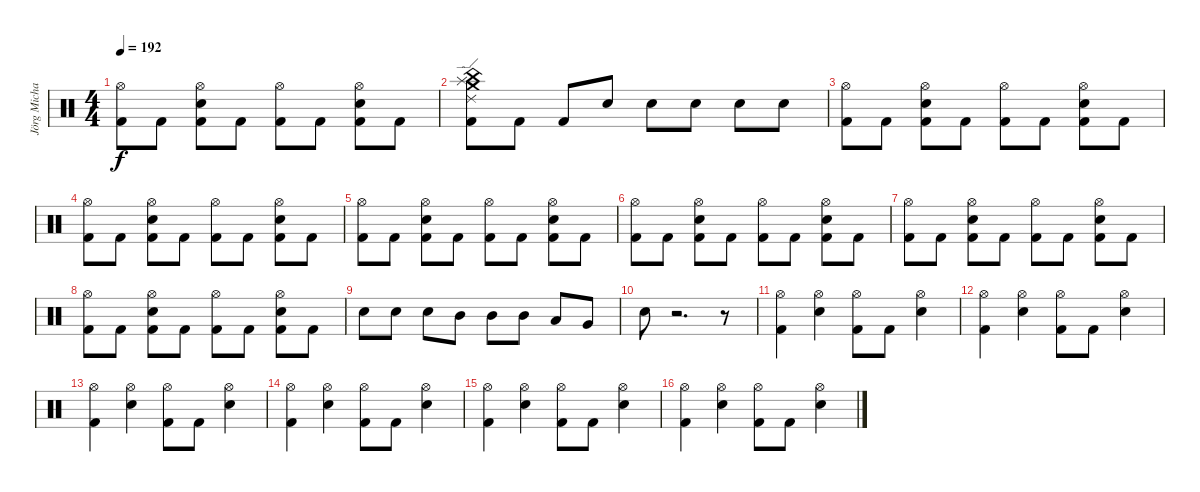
\track ("Jörg Michael" "Jörg Micha") {instrument percussion}
\staff {score}
\articulation defaults
\ts (4 4)
\tempo 192
\clef neutral
\ks c
("Hi-Hat (open)" "Kick (hit) 2").8{dy f} "Kick (hit) 2".8 ("Electric Snare (hit)" "Hi-Hat (open)" "Kick (hit) 2").8 "Kick (hit) 2".8 ("Hi-Hat (open)" "Kick (hit) 2").8 "Kick (hit) 2".8 ("Electric Snare (hit)" "Hi-Hat (open)" "Kick (hit) 2").8 "Kick (hit) 2".8 |
("Ride (edge) 2" "Crash medium (hit)" "Splash (hit)" "China (hit)" "Kick (hit) 2").8 "Kick (hit) 2".8 "Kick (hit) 2".8 "Electric Snare (hit)".8{volume 6} "Electric Snare (hit)".8{volume 7} "Electric Snare (hit)".8{volume 8} "Electric Snare (hit)".8{volume 9} "Electric Snare (hit)".8{volume 10} |
("Hi-Hat (open)" "Kick (hit) 2").8{volume 11} "Kick (hit) 2".8 ("Electric Snare (hit)" "Hi-Hat (open)" "Kick (hit) 2").8 "Kick (hit) 2".8 ("Hi-Hat (open)" "Kick (hit) 2").8 "Kick (hit) 2".8 ("Electric Snare (hit)" "Hi-Hat (open)" "Kick (hit) 2").8 "Kick (hit) 2".8 |
("Hi-Hat (open)" "Kick (hit) 2").8 "Kick (hit) 2".8 ("Electric Snare (hit)" "Hi-Hat (open)" "Kick (hit) 2").8 "Kick (hit) 2".8 ("Hi-Hat (open)" "Kick (hit) 2").8 "Kick (hit) 2".8 ("Electric Snare (hit)" "Hi-Hat (open)" "Kick (hit) 2").8 "Kick (hit) 2".8 |
("Hi-Hat (open)" "Kick (hit) 2").8 "Kick (hit) 2".8 ("Electric Snare (hit)" "Hi-Hat (open)" "Kick (hit) 2").8 "Kick (hit) 2".8 ("Hi-Hat (open)" "Kick (hit) 2").8 "Kick (hit) 2".8 ("Electric Snare (hit)" "Hi-Hat (open)" "Kick (hit) 2").8 "Kick (hit) 2".8 |
("Hi-Hat (open)" "Kick (hit) 2").8 "Kick (hit) 2".8 ("Electric Snare (hit)" "Hi-Hat (open)" "Kick (hit) 2").8 "Kick (hit) 2".8 ("Hi-Hat (open)" "Kick (hit) 2").8 "Kick (hit) 2".8 ("Electric Snare (hit)" "Hi-Hat (open)" "Kick (hit) 2").8 "Kick (hit) 2".8 |
("Hi-Hat (open)" "Kick (hit) 2").8 "Kick (hit) 2".8 ("Electric Snare (hit)" "Hi-Hat (open)" "Kick (hit) 2").8 "Kick (hit) 2".8 ("Hi-Hat (open)" "Kick (hit) 2").8 "Kick (hit) 2".8 ("Electric Snare (hit)" "Hi-Hat (open)" "Kick (hit) 2").8 "Kick (hit) 2".8 |
("Hi-Hat (open)" "Kick (hit) 2").8 "Kick (hit) 2".8 ("Electric Snare (hit)" "Hi-Hat (open)" "Kick (hit) 2").8 "Kick (hit) 2".8 ("Hi-Hat (open)" "Kick (hit) 2").8 "Kick (hit) 2".8 ("Electric Snare (hit)" "Hi-Hat (open)" "Kick (hit) 2").8 "Kick (hit) 2".8 |
"Electric Snare (hit)".8 "Electric Snare (hit)".8 "Electric Snare (hit)".8 "Mid Tom (hit)".8 "Mid Tom (hit)".8 "Mid Tom (hit)".8 "Low Tom (hit)".8 "Very Low Tom (hit)".8 |
"Electric Snare (hit)".8 r.2{d} r.8 |
("Hi-Hat (open)" "Kick (hit) 2").4 ("Hi-Hat (open)" "Electric Snare (hit)").4 ("Hi-Hat (open)" "Kick (hit) 2").8 "Kick (hit) 2".8 ("Hi-Hat (open)" "Electric Snare (hit)").4 |
("Hi-Hat (open)" "Kick (hit) 2").4 ("Hi-Hat (open)" "Electric Snare (hit)").4 ("Hi-Hat (open)" "Kick (hit) 2").8 "Kick (hit) 2".8 ("Hi-Hat (open)" "Electric Snare (hit)").4 |
("Hi-Hat (open)" "Kick (hit) 2").4 ("Hi-Hat (open)" "Electric Snare (hit)").4 ("Hi-Hat (open)" "Kick (hit) 2").8 "Kick (hit) 2".8 ("Hi-Hat (open)" "Electric Snare (hit)").4 |
("Hi-Hat (open)" "Kick (hit) 2").4 ("Hi-Hat (open)" "Electric Snare (hit)").4 ("Hi-Hat (open)" "Kick (hit) 2").8 "Kick (hit) 2".8 ("Hi-Hat (open)" "Electric Snare (hit)").4 |
("Hi-Hat (open)" "Kick (hit) 2").4 ("Hi-Hat (open)" "Electric Snare (hit)").4 ("Hi-Hat (open)" "Kick (hit) 2").8 "Kick (hit) 2".8 ("Hi-Hat (open)" "Electric Snare (hit)").4 |
("Hi-Hat (open)" "Kick (hit) 2").4 ("Hi-Hat (open)" "Electric Snare (hit)").4 ("Hi-Hat (open)" "Kick (hit) 2").8 "Kick (hit) 2".8 ("Hi-Hat (open)" "Electric Snare (hit)").4
